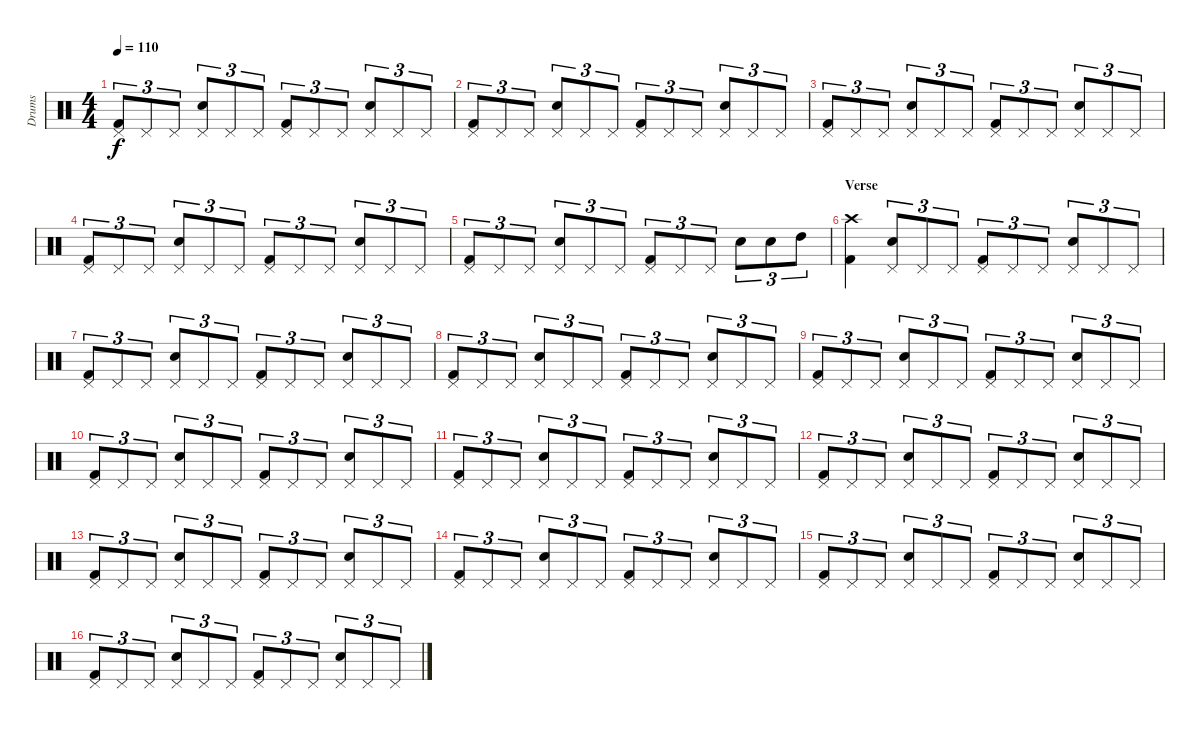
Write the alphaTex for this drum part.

\track ("Drums" "Drums") {instrument percussion}
\staff {score}
\articulation defaults
\ts (4 4)
\tempo 110
\clef neutral
\ks c
("Pedal Hi-Hat (hit)" "Kick (hit) 2").8{tu (3 2) dy f} "Pedal Hi-Hat (hit)".8{tu (3 2)} "Pedal Hi-Hat (hit)".8{tu (3 2)} ("Pedal Hi-Hat (hit)" "Electric Snare (hit)").8{tu (3 2)} "Pedal Hi-Hat (hit)".8{tu (3 2)} "Pedal Hi-Hat (hit)".8{tu (3 2)} ("Pedal Hi-Hat (hit)" "Kick (hit) 2").8{tu (3 2)} "Pedal Hi-Hat (hit)".8{tu (3 2)} "Pedal Hi-Hat (hit)".8{tu (3 2)} ("Pedal Hi-Hat (hit)" "Electric Snare (hit)").8{tu (3 2)} "Pedal Hi-Hat (hit)".8{tu (3 2)} "Pedal Hi-Hat (hit)".8{tu (3 2)} |
("Pedal Hi-Hat (hit)" "Kick (hit) 2").8{tu (3 2)} "Pedal Hi-Hat (hit)".8{tu (3 2)} "Pedal Hi-Hat (hit)".8{tu (3 2)} ("Pedal Hi-Hat (hit)" "Electric Snare (hit)").8{tu (3 2)} "Pedal Hi-Hat (hit)".8{tu (3 2)} "Pedal Hi-Hat (hit)".8{tu (3 2)} ("Pedal Hi-Hat (hit)" "Kick (hit) 2").8{tu (3 2)} "Pedal Hi-Hat (hit)".8{tu (3 2)} "Pedal Hi-Hat (hit)".8{tu (3 2)} ("Pedal Hi-Hat (hit)" "Electric Snare (hit)").8{tu (3 2)} "Pedal Hi-Hat (hit)".8{tu (3 2)} "Pedal Hi-Hat (hit)".8{tu (3 2)} |
("Pedal Hi-Hat (hit)" "Kick (hit) 2").8{tu (3 2)} "Pedal Hi-Hat (hit)".8{tu (3 2)} "Pedal Hi-Hat (hit)".8{tu (3 2)} ("Pedal Hi-Hat (hit)" "Electric Snare (hit)").8{tu (3 2)} "Pedal Hi-Hat (hit)".8{tu (3 2)} "Pedal Hi-Hat (hit)".8{tu (3 2)} ("Pedal Hi-Hat (hit)" "Kick (hit) 2").8{tu (3 2)} "Pedal Hi-Hat (hit)".8{tu (3 2)} "Pedal Hi-Hat (hit)".8{tu (3 2)} ("Pedal Hi-Hat (hit)" "Electric Snare (hit)").8{tu (3 2)} "Pedal Hi-Hat (hit)".8{tu (3 2)} "Pedal Hi-Hat (hit)".8{tu (3 2)} |
("Pedal Hi-Hat (hit)" "Kick (hit) 2").8{tu (3 2)} "Pedal Hi-Hat (hit)".8{tu (3 2)} "Pedal Hi-Hat (hit)".8{tu (3 2)} ("Pedal Hi-Hat (hit)" "Electric Snare (hit)").8{tu (3 2)} "Pedal Hi-Hat (hit)".8{tu (3 2)} "Pedal Hi-Hat (hit)".8{tu (3 2)} ("Pedal Hi-Hat (hit)" "Kick (hit) 2").8{tu (3 2)} "Pedal Hi-Hat (hit)".8{tu (3 2)} "Pedal Hi-Hat (hit)".8{tu (3 2)} ("Pedal Hi-Hat (hit)" "Electric Snare (hit)").8{tu (3 2)} "Pedal Hi-Hat (hit)".8{tu (3 2)} "Pedal Hi-Hat (hit)".8{tu (3 2)} |
("Pedal Hi-Hat (hit)" "Kick (hit) 2").8{tu (3 2)} "Pedal Hi-Hat (hit)".8{tu (3 2)} "Pedal Hi-Hat (hit)".8{tu (3 2)} ("Pedal Hi-Hat (hit)" "Electric Snare (hit)").8{tu (3 2)} "Pedal Hi-Hat (hit)".8{tu (3 2)} "Pedal Hi-Hat (hit)".8{tu (3 2)} ("Pedal Hi-Hat (hit)" "Kick (hit) 2").8{tu (3 2)} "Pedal Hi-Hat (hit)".8{tu (3 2)} "Pedal Hi-Hat (hit)".8{tu (3 2)} "Electric Snare (hit)".8{tu (3 2)} "Electric Snare (hit)".8{tu (3 2)} "High Tom (hit)".8{tu (3 2)} |
\section ("" "Verse")
("Crash high (hit)" "Kick (hit) 2").4 ("Pedal Hi-Hat (hit)" "Electric Snare (hit)").8{tu (3 2)} "Pedal Hi-Hat (hit)".8{tu (3 2)} "Pedal Hi-Hat (hit)".8{tu (3 2)} ("Pedal Hi-Hat (hit)" "Kick (hit) 2").8{tu (3 2)} "Pedal Hi-Hat (hit)".8{tu (3 2)} "Pedal Hi-Hat (hit)".8{tu (3 2)} ("Pedal Hi-Hat (hit)" "Electric Snare (hit)").8{tu (3 2)} "Pedal Hi-Hat (hit)".8{tu (3 2)} "Pedal Hi-Hat (hit)".8{tu (3 2)} |
("Pedal Hi-Hat (hit)" "Kick (hit) 2").8{tu (3 2)} "Pedal Hi-Hat (hit)".8{tu (3 2)} "Pedal Hi-Hat (hit)".8{tu (3 2)} ("Pedal Hi-Hat (hit)" "Electric Snare (hit)").8{tu (3 2)} "Pedal Hi-Hat (hit)".8{tu (3 2)} "Pedal Hi-Hat (hit)".8{tu (3 2)} ("Pedal Hi-Hat (hit)" "Kick (hit) 2").8{tu (3 2)} "Pedal Hi-Hat (hit)".8{tu (3 2)} "Pedal Hi-Hat (hit)".8{tu (3 2)} ("Pedal Hi-Hat (hit)" "Electric Snare (hit)").8{tu (3 2)} "Pedal Hi-Hat (hit)".8{tu (3 2)} "Pedal Hi-Hat (hit)".8{tu (3 2)} |
("Pedal Hi-Hat (hit)" "Kick (hit) 2").8{tu (3 2)} "Pedal Hi-Hat (hit)".8{tu (3 2)} "Pedal Hi-Hat (hit)".8{tu (3 2)} ("Pedal Hi-Hat (hit)" "Electric Snare (hit)").8{tu (3 2)} "Pedal Hi-Hat (hit)".8{tu (3 2)} "Pedal Hi-Hat (hit)".8{tu (3 2)} ("Pedal Hi-Hat (hit)" "Kick (hit) 2").8{tu (3 2)} "Pedal Hi-Hat (hit)".8{tu (3 2)} "Pedal Hi-Hat (hit)".8{tu (3 2)} ("Pedal Hi-Hat (hit)" "Electric Snare (hit)").8{tu (3 2)} "Pedal Hi-Hat (hit)".8{tu (3 2)} "Pedal Hi-Hat (hit)".8{tu (3 2)} |
("Pedal Hi-Hat (hit)" "Kick (hit) 2").8{tu (3 2)} "Pedal Hi-Hat (hit)".8{tu (3 2)} "Pedal Hi-Hat (hit)".8{tu (3 2)} ("Pedal Hi-Hat (hit)" "Electric Snare (hit)").8{tu (3 2)} "Pedal Hi-Hat (hit)".8{tu (3 2)} "Pedal Hi-Hat (hit)".8{tu (3 2)} ("Pedal Hi-Hat (hit)" "Kick (hit) 2").8{tu (3 2)} "Pedal Hi-Hat (hit)".8{tu (3 2)} "Pedal Hi-Hat (hit)".8{tu (3 2)} ("Pedal Hi-Hat (hit)" "Electric Snare (hit)").8{tu (3 2)} "Pedal Hi-Hat (hit)".8{tu (3 2)} "Pedal Hi-Hat (hit)".8{tu (3 2)} |
("Pedal Hi-Hat (hit)" "Kick (hit) 2").8{tu (3 2)} "Pedal Hi-Hat (hit)".8{tu (3 2)} "Pedal Hi-Hat (hit)".8{tu (3 2)} ("Pedal Hi-Hat (hit)" "Electric Snare (hit)").8{tu (3 2)} "Pedal Hi-Hat (hit)".8{tu (3 2)} "Pedal Hi-Hat (hit)".8{tu (3 2)} ("Pedal Hi-Hat (hit)" "Kick (hit) 2").8{tu (3 2)} "Pedal Hi-Hat (hit)".8{tu (3 2)} "Pedal Hi-Hat (hit)".8{tu (3 2)} ("Pedal Hi-Hat (hit)" "Electric Snare (hit)").8{tu (3 2)} "Pedal Hi-Hat (hit)".8{tu (3 2)} "Pedal Hi-Hat (hit)".8{tu (3 2)} |
("Pedal Hi-Hat (hit)" "Kick (hit) 2").8{tu (3 2)} "Pedal Hi-Hat (hit)".8{tu (3 2)} "Pedal Hi-Hat (hit)".8{tu (3 2)} ("Pedal Hi-Hat (hit)" "Electric Snare (hit)").8{tu (3 2)} "Pedal Hi-Hat (hit)".8{tu (3 2)} "Pedal Hi-Hat (hit)".8{tu (3 2)} ("Pedal Hi-Hat (hit)" "Kick (hit) 2").8{tu (3 2)} "Pedal Hi-Hat (hit)".8{tu (3 2)} "Pedal Hi-Hat (hit)".8{tu (3 2)} ("Pedal Hi-Hat (hit)" "Electric Snare (hit)").8{tu (3 2)} "Pedal Hi-Hat (hit)".8{tu (3 2)} "Pedal Hi-Hat (hit)".8{tu (3 2)} |
("Pedal Hi-Hat (hit)" "Kick (hit) 2").8{tu (3 2)} "Pedal Hi-Hat (hit)".8{tu (3 2)} "Pedal Hi-Hat (hit)".8{tu (3 2)} ("Pedal Hi-Hat (hit)" "Electric Snare (hit)").8{tu (3 2)} "Pedal Hi-Hat (hit)".8{tu (3 2)} "Pedal Hi-Hat (hit)".8{tu (3 2)} ("Pedal Hi-Hat (hit)" "Kick (hit) 2").8{tu (3 2)} "Pedal Hi-Hat (hit)".8{tu (3 2)} "Pedal Hi-Hat (hit)".8{tu (3 2)} ("Pedal Hi-Hat (hit)" "Electric Snare (hit)").8{tu (3 2)} "Pedal Hi-Hat (hit)".8{tu (3 2)} "Pedal Hi-Hat (hit)".8{tu (3 2)} |
("Pedal Hi-Hat (hit)" "Kick (hit) 2").8{tu (3 2)} "Pedal Hi-Hat (hit)".8{tu (3 2)} "Pedal Hi-Hat (hit)".8{tu (3 2)} ("Pedal Hi-Hat (hit)" "Electric Snare (hit)").8{tu (3 2)} "Pedal Hi-Hat (hit)".8{tu (3 2)} "Pedal Hi-Hat (hit)".8{tu (3 2)} ("Pedal Hi-Hat (hit)" "Kick (hit) 2").8{tu (3 2)} "Pedal Hi-Hat (hit)".8{tu (3 2)} "Pedal Hi-Hat (hit)".8{tu (3 2)} ("Pedal Hi-Hat (hit)" "Electric Snare (hit)").8{tu (3 2)} "Pedal Hi-Hat (hit)".8{tu (3 2)} "Pedal Hi-Hat (hit)".8{tu (3 2)} |
("Pedal Hi-Hat (hit)" "Kick (hit) 2").8{tu (3 2)} "Pedal Hi-Hat (hit)".8{tu (3 2)} "Pedal Hi-Hat (hit)".8{tu (3 2)} ("Pedal Hi-Hat (hit)" "Electric Snare (hit)").8{tu (3 2)} "Pedal Hi-Hat (hit)".8{tu (3 2)} "Pedal Hi-Hat (hit)".8{tu (3 2)} ("Pedal Hi-Hat (hit)" "Kick (hit) 2").8{tu (3 2)} "Pedal Hi-Hat (hit)".8{tu (3 2)} "Pedal Hi-Hat (hit)".8{tu (3 2)} ("Pedal Hi-Hat (hit)" "Electric Snare (hit)").8{tu (3 2)} "Pedal Hi-Hat (hit)".8{tu (3 2)} "Pedal Hi-Hat (hit)".8{tu (3 2)} |
("Pedal Hi-Hat (hit)" "Kick (hit) 2").8{tu (3 2)} "Pedal Hi-Hat (hit)".8{tu (3 2)} "Pedal Hi-Hat (hit)".8{tu (3 2)} ("Pedal Hi-Hat (hit)" "Electric Snare (hit)").8{tu (3 2)} "Pedal Hi-Hat (hit)".8{tu (3 2)} "Pedal Hi-Hat (hit)".8{tu (3 2)} ("Pedal Hi-Hat (hit)" "Kick (hit) 2").8{tu (3 2)} "Pedal Hi-Hat (hit)".8{tu (3 2)} "Pedal Hi-Hat (hit)".8{tu (3 2)} ("Pedal Hi-Hat (hit)" "Electric Snare (hit)").8{tu (3 2)} "Pedal Hi-Hat (hit)".8{tu (3 2)} "Pedal Hi-Hat (hit)".8{tu (3 2)} |
("Pedal Hi-Hat (hit)" "Kick (hit) 2").8{tu (3 2)} "Pedal Hi-Hat (hit)".8{tu (3 2)} "Pedal Hi-Hat (hit)".8{tu (3 2)} ("Pedal Hi-Hat (hit)" "Electric Snare (hit)").8{tu (3 2)} "Pedal Hi-Hat (hit)".8{tu (3 2)} "Pedal Hi-Hat (hit)".8{tu (3 2)} ("Pedal Hi-Hat (hit)" "Kick (hit) 2").8{tu (3 2)} "Pedal Hi-Hat (hit)".8{tu (3 2)} "Pedal Hi-Hat (hit)".8{tu (3 2)} ("Pedal Hi-Hat (hit)" "Electric Snare (hit)").8{tu (3 2)} "Pedal Hi-Hat (hit)".8{tu (3 2)} "Pedal Hi-Hat (hit)".8{tu (3 2)}
